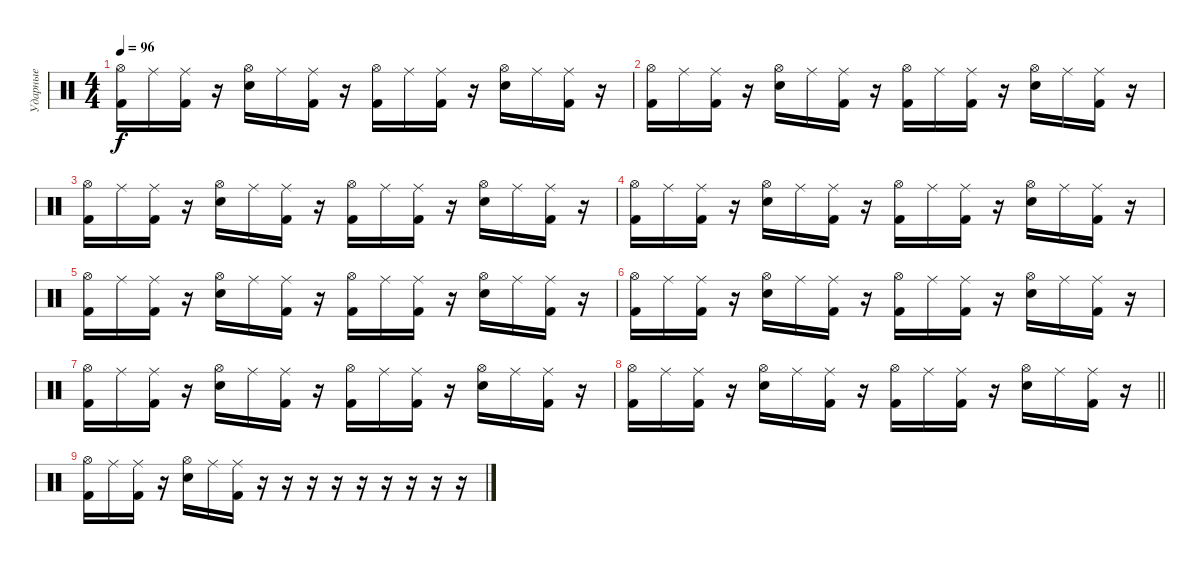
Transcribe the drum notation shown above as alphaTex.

\track ("Ударные" "Ударные") {instrument percussion}
\staff {score}
\articulation defaults
\ts (4 4)
\section ("" "")
\tempo 96
\clef neutral
\ks c
("Hi-Hat (open)" "Kick (hit) 2").16{dy f} "Ride (middle)".16 ("Ride (middle)" "Kick (hit) 2").16 r.16 ("Hi-Hat (open)" "Electric Snare (hit)").16 "Ride (middle)".16 ("Ride (middle)" "Kick (hit) 2").16 r.16 ("Hi-Hat (open)" "Kick (hit) 2").16 "Ride (middle)".16 ("Ride (middle)" "Kick (hit) 2").16 r.16 ("Hi-Hat (open)" "Electric Snare (hit)").16 "Ride (middle)".16 ("Ride (middle)" "Kick (hit) 2").16 r.16 |
("Hi-Hat (open)" "Kick (hit) 2").16 "Ride (middle)".16 ("Ride (middle)" "Kick (hit) 2").16 r.16 ("Hi-Hat (open)" "Electric Snare (hit)").16 "Ride (middle)".16 ("Ride (middle)" "Kick (hit) 2").16 r.16 ("Hi-Hat (open)" "Kick (hit) 2").16 "Ride (middle)".16 ("Ride (middle)" "Kick (hit) 2").16 r.16 ("Hi-Hat (open)" "Electric Snare (hit)").16 "Ride (middle)".16 ("Ride (middle)" "Kick (hit) 2").16 r.16 |
("Hi-Hat (open)" "Kick (hit) 2").16 "Ride (middle)".16 ("Ride (middle)" "Kick (hit) 2").16 r.16 ("Hi-Hat (open)" "Electric Snare (hit)").16 "Ride (middle)".16 ("Ride (middle)" "Kick (hit) 2").16 r.16 ("Hi-Hat (open)" "Kick (hit) 2").16 "Ride (middle)".16 ("Ride (middle)" "Kick (hit) 2").16 r.16 ("Hi-Hat (open)" "Electric Snare (hit)").16 "Ride (middle)".16 ("Ride (middle)" "Kick (hit) 2").16 r.16 |
("Hi-Hat (open)" "Kick (hit) 2").16 "Ride (middle)".16 ("Ride (middle)" "Kick (hit) 2").16 r.16 ("Hi-Hat (open)" "Electric Snare (hit)").16 "Ride (middle)".16 ("Ride (middle)" "Kick (hit) 2").16 r.16 ("Hi-Hat (open)" "Kick (hit) 2").16 "Ride (middle)".16 ("Ride (middle)" "Kick (hit) 2").16 r.16 ("Hi-Hat (open)" "Electric Snare (hit)").16 "Ride (middle)".16 ("Ride (middle)" "Kick (hit) 2").16 r.16 |
("Hi-Hat (open)" "Kick (hit) 2").16 "Ride (middle)".16 ("Ride (middle)" "Kick (hit) 2").16 r.16 ("Hi-Hat (open)" "Electric Snare (hit)").16 "Ride (middle)".16 ("Ride (middle)" "Kick (hit) 2").16 r.16 ("Hi-Hat (open)" "Kick (hit) 2").16 "Ride (middle)".16 ("Ride (middle)" "Kick (hit) 2").16 r.16 ("Hi-Hat (open)" "Electric Snare (hit)").16 "Ride (middle)".16 ("Ride (middle)" "Kick (hit) 2").16 r.16 |
("Hi-Hat (open)" "Kick (hit) 2").16 "Ride (middle)".16 ("Ride (middle)" "Kick (hit) 2").16 r.16 ("Hi-Hat (open)" "Electric Snare (hit)").16 "Ride (middle)".16 ("Ride (middle)" "Kick (hit) 2").16 r.16 ("Hi-Hat (open)" "Kick (hit) 2").16 "Ride (middle)".16 ("Ride (middle)" "Kick (hit) 2").16 r.16 ("Hi-Hat (open)" "Electric Snare (hit)").16 "Ride (middle)".16 ("Ride (middle)" "Kick (hit) 2").16 r.16 |
("Hi-Hat (open)" "Kick (hit) 2").16 "Ride (middle)".16 ("Ride (middle)" "Kick (hit) 2").16 r.16 ("Hi-Hat (open)" "Electric Snare (hit)").16 "Ride (middle)".16 ("Ride (middle)" "Kick (hit) 2").16 r.16 ("Hi-Hat (open)" "Kick (hit) 2").16 "Ride (middle)".16 ("Ride (middle)" "Kick (hit) 2").16 r.16 ("Hi-Hat (open)" "Electric Snare (hit)").16 "Ride (middle)".16 ("Ride (middle)" "Kick (hit) 2").16 r.16 |
\barLineRight lightlight
("Hi-Hat (open)" "Kick (hit) 2").16 "Ride (middle)".16 ("Ride (middle)" "Kick (hit) 2").16 r.16 ("Hi-Hat (open)" "Electric Snare (hit)").16 "Ride (middle)".16 ("Ride (middle)" "Kick (hit) 2").16 r.16 ("Hi-Hat (open)" "Kick (hit) 2").16 "Ride (middle)".16 ("Ride (middle)" "Kick (hit) 2").16 r.16 ("Hi-Hat (open)" "Electric Snare (hit)").16 "Ride (middle)".16 ("Ride (middle)" "Kick (hit) 2").16 r.16 |
("Hi-Hat (open)" "Kick (hit) 2").16 "Ride (middle)".16 ("Ride (middle)" "Kick (hit) 2").16 r.16 ("Hi-Hat (open)" "Electric Snare (hit)").16 "Ride (middle)".16 ("Ride (middle)" "Kick (hit) 2").16 r.16 r.16 r.16 r.16 r.16 r.16 r.16 r.16 r.16
